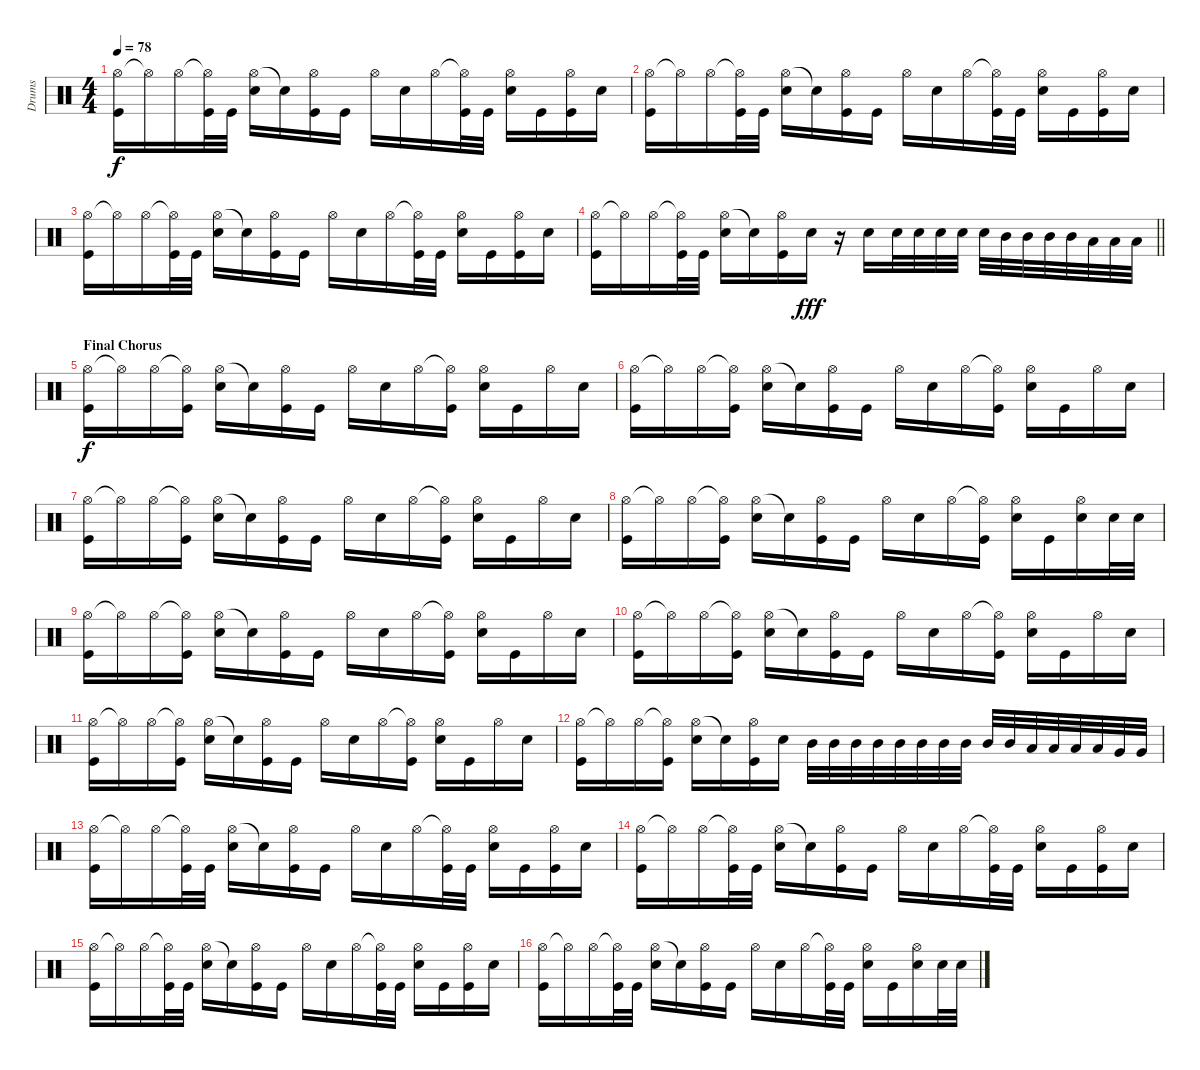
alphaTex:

\track ("Drums" "Drums") {instrument percussion}
\staff {score}
\articulation defaults
\ts (4 4)
\tempo 78
\clef neutral
\ks c
("Hi-Hat (open)" "Kick (hit)").16{dy f} "Hi-Hat (open)"{t}.16 "Hi-Hat (open)".16 ("Hi-Hat (open)"{t} "Kick (hit)").32 "Kick (hit)".32 ("Hi-Hat (open)" "Electric Snare (hit)").16 "Snare (hit)"{t}.16 ("Hi-Hat (open)" "Kick (hit)").16 "Kick (hit)".16 "Hi-Hat (open)".16 "Electric Snare (hit)".16 "Hi-Hat (open)".16 ("Hi-Hat (open)"{t} "Kick (hit)").32 "Kick (hit)".32 ("Hi-Hat (open)" "Electric Snare (hit)").16 "Kick (hit)".16 ("Hi-Hat (open)" "Kick (hit)").16 "Electric Snare (hit)".16 |
("Hi-Hat (open)" "Kick (hit)").16 "Hi-Hat (open)"{t}.16 "Hi-Hat (open)".16 ("Hi-Hat (open)"{t} "Kick (hit)").32 "Kick (hit)".32 ("Hi-Hat (open)" "Electric Snare (hit)").16 "Snare (hit)"{t}.16 ("Hi-Hat (open)" "Kick (hit)").16 "Kick (hit)".16 "Hi-Hat (open)".16 "Electric Snare (hit)".16 "Hi-Hat (open)".16 ("Hi-Hat (open)"{t} "Kick (hit)").32 "Kick (hit)".32 ("Hi-Hat (open)" "Electric Snare (hit)").16 "Kick (hit)".16 ("Hi-Hat (open)" "Kick (hit)").16 "Electric Snare (hit)".16 |
("Hi-Hat (open)" "Kick (hit)").16 "Hi-Hat (open)"{t}.16 "Hi-Hat (open)".16 ("Hi-Hat (open)"{t} "Kick (hit)").32 "Kick (hit)".32 ("Hi-Hat (open)" "Electric Snare (hit)").16 "Snare (hit)"{t}.16 ("Hi-Hat (open)" "Kick (hit)").16 "Kick (hit)".16 "Hi-Hat (open)".16 "Electric Snare (hit)".16 "Hi-Hat (open)".16 ("Hi-Hat (open)"{t} "Kick (hit)").32 "Kick (hit)".32 ("Hi-Hat (open)" "Electric Snare (hit)").16 "Kick (hit)".16 ("Hi-Hat (open)" "Kick (hit)").16 "Electric Snare (hit)".16 |
\barLineRight lightlight
("Hi-Hat (open)" "Kick (hit)").16 "Hi-Hat (open)"{t}.16 "Hi-Hat (open)".16 ("Hi-Hat (open)"{t} "Kick (hit)").32 "Kick (hit)".32 ("Hi-Hat (open)" "Electric Snare (hit)").16 "Snare (hit)"{t}.16 ("Hi-Hat (open)" "Kick (hit)").16 "Electric Snare (hit)".16{dy fff} r.16 "Electric Snare (hit)".16 "Electric Snare (hit)".32 "Electric Snare (hit)".32 "Electric Snare (hit)".32 "Electric Snare (hit)".32 "Electric Snare (hit)".32 "Mid Tom (hit)".32 "Mid Tom (hit)".32 "Mid Tom (hit)".32 "Mid Tom (hit)".32 "Low Tom (hit)".32 "Low Tom (hit)".32 "Low Tom (hit)".32 |
\section ("" "Final Chorus")
("Hi-Hat (open)" "Kick (hit)").16{dy f} "Hi-Hat (open)"{t}.16 "Hi-Hat (open)".16 ("Hi-Hat (open)"{t} "Kick (hit)").16 ("Hi-Hat (open)" "Electric Snare (hit)").16 "Snare (hit)"{t}.16 ("Hi-Hat (open)" "Kick (hit)").16 "Kick (hit)".16 "Hi-Hat (open)".16 "Electric Snare (hit)".16 "Hi-Hat (open)".16 ("Hi-Hat (open)"{t} "Kick (hit)").16 ("Hi-Hat (open)" "Electric Snare (hit)").16 "Kick (hit)".16 "Hi-Hat (open)".16 "Electric Snare (hit)".16 |
("Hi-Hat (open)" "Kick (hit)").16 "Hi-Hat (open)"{t}.16 "Hi-Hat (open)".16 ("Hi-Hat (open)"{t} "Kick (hit)").16 ("Hi-Hat (open)" "Electric Snare (hit)").16 "Snare (hit)"{t}.16 ("Hi-Hat (open)" "Kick (hit)").16 "Kick (hit)".16 "Hi-Hat (open)".16 "Electric Snare (hit)".16 "Hi-Hat (open)".16 ("Hi-Hat (open)"{t} "Kick (hit)").16 ("Hi-Hat (open)" "Electric Snare (hit)").16 "Kick (hit)".16 "Hi-Hat (open)".16 "Electric Snare (hit)".16 |
("Hi-Hat (open)" "Kick (hit)").16 "Hi-Hat (open)"{t}.16 "Hi-Hat (open)".16 ("Hi-Hat (open)"{t} "Kick (hit)").16 ("Hi-Hat (open)" "Electric Snare (hit)").16 "Snare (hit)"{t}.16 ("Hi-Hat (open)" "Kick (hit)").16 "Kick (hit)".16 "Hi-Hat (open)".16 "Electric Snare (hit)".16 "Hi-Hat (open)".16 ("Hi-Hat (open)"{t} "Kick (hit)").16 ("Hi-Hat (open)" "Electric Snare (hit)").16 "Kick (hit)".16 "Hi-Hat (open)".16 "Electric Snare (hit)".16 |
("Hi-Hat (open)" "Kick (hit)").16 "Hi-Hat (open)"{t}.16 "Hi-Hat (open)".16 ("Hi-Hat (open)"{t} "Kick (hit)").16 ("Hi-Hat (open)" "Electric Snare (hit)").16 "Snare (hit)"{t}.16 ("Hi-Hat (open)" "Kick (hit)").16 "Kick (hit)".16 "Hi-Hat (open)".16 "Electric Snare (hit)".16 "Hi-Hat (open)".16 ("Hi-Hat (open)"{t} "Kick (hit)").16 ("Hi-Hat (open)" "Electric Snare (hit)").16 "Kick (hit)".16 ("Hi-Hat (open)" "Electric Snare (hit)").16 "Electric Snare (hit)".32 "Electric Snare (hit)".32 |
("Hi-Hat (open)" "Kick (hit)").16 "Hi-Hat (open)"{t}.16 "Hi-Hat (open)".16 ("Hi-Hat (open)"{t} "Kick (hit)").16 ("Hi-Hat (open)" "Electric Snare (hit)").16 "Snare (hit)"{t}.16 ("Hi-Hat (open)" "Kick (hit)").16 "Kick (hit)".16 "Hi-Hat (open)".16 "Electric Snare (hit)".16 "Hi-Hat (open)".16 ("Hi-Hat (open)"{t} "Kick (hit)").16 ("Hi-Hat (open)" "Electric Snare (hit)").16 "Kick (hit)".16 "Hi-Hat (open)".16 "Electric Snare (hit)".16 |
("Hi-Hat (open)" "Kick (hit)").16 "Hi-Hat (open)"{t}.16 "Hi-Hat (open)".16 ("Hi-Hat (open)"{t} "Kick (hit)").16 ("Hi-Hat (open)" "Electric Snare (hit)").16 "Snare (hit)"{t}.16 ("Hi-Hat (open)" "Kick (hit)").16 "Kick (hit)".16 "Hi-Hat (open)".16 "Electric Snare (hit)".16 "Hi-Hat (open)".16 ("Hi-Hat (open)"{t} "Kick (hit)").16 ("Hi-Hat (open)" "Electric Snare (hit)").16 "Kick (hit)".16 "Hi-Hat (open)".16 "Electric Snare (hit)".16 |
("Hi-Hat (open)" "Kick (hit)").16 "Hi-Hat (open)"{t}.16 "Hi-Hat (open)".16 ("Hi-Hat (open)"{t} "Kick (hit)").16 ("Hi-Hat (open)" "Electric Snare (hit)").16 "Snare (hit)"{t}.16 ("Hi-Hat (open)" "Kick (hit)").16 "Kick (hit)".16 "Hi-Hat (open)".16 "Electric Snare (hit)".16 "Hi-Hat (open)".16 ("Hi-Hat (open)"{t} "Kick (hit)").16 ("Hi-Hat (open)" "Electric Snare (hit)").16 "Kick (hit)".16 "Hi-Hat (open)".16 "Electric Snare (hit)".16 |
("Hi-Hat (open)" "Kick (hit)").16 "Hi-Hat (open)"{t}.16 "Hi-Hat (open)".16 ("Hi-Hat (open)"{t} "Kick (hit)").16 ("Hi-Hat (open)" "Electric Snare (hit)").16 "Snare (hit)"{t}.16 ("Hi-Hat (open)" "Kick (hit)").16 "Electric Snare (hit)".16 "Mid Tom (hit)".32 "Mid Tom (hit)".32 "Mid Tom (hit)".32 "Mid Tom (hit)".32 "Mid Tom (hit)".32 "Mid Tom (hit)".32 "Mid Tom (hit)".32 "Mid Tom (hit)".32 "Mid Tom (hit)".32 "Mid Tom (hit)".32 "Low Tom (hit)".32 "Low Tom (hit)".32 "Low Tom (hit)".32 "Low Tom (hit)".32 "Very Low Tom (hit)".32 "Very Low Tom (hit)".32 |
("Hi-Hat (open)" "Kick (hit)").16 "Hi-Hat (open)"{t}.16 "Hi-Hat (open)".16 ("Hi-Hat (open)"{t} "Kick (hit)").32 "Kick (hit)".32 ("Hi-Hat (open)" "Electric Snare (hit)").16 "Snare (hit)"{t}.16 ("Hi-Hat (open)" "Kick (hit)").16 "Kick (hit)".16 "Hi-Hat (open)".16 "Electric Snare (hit)".16 "Hi-Hat (open)".16 ("Hi-Hat (open)"{t} "Kick (hit)").32 "Kick (hit)".32 ("Hi-Hat (open)" "Electric Snare (hit)").16 "Kick (hit)".16 ("Hi-Hat (open)" "Kick (hit)").16 "Electric Snare (hit)".16 |
("Hi-Hat (open)" "Kick (hit)").16 "Hi-Hat (open)"{t}.16 "Hi-Hat (open)".16 ("Hi-Hat (open)"{t} "Kick (hit)").32 "Kick (hit)".32 ("Hi-Hat (open)" "Electric Snare (hit)").16 "Snare (hit)"{t}.16 ("Hi-Hat (open)" "Kick (hit)").16 "Kick (hit)".16 "Hi-Hat (open)".16 "Electric Snare (hit)".16 "Hi-Hat (open)".16 ("Hi-Hat (open)"{t} "Kick (hit)").32 "Kick (hit)".32 ("Hi-Hat (open)" "Electric Snare (hit)").16 "Kick (hit)".16 ("Hi-Hat (open)" "Kick (hit)").16 "Electric Snare (hit)".16 |
("Hi-Hat (open)" "Kick (hit)").16 "Hi-Hat (open)"{t}.16 "Hi-Hat (open)".16 ("Hi-Hat (open)"{t} "Kick (hit)").32 "Kick (hit)".32 ("Hi-Hat (open)" "Electric Snare (hit)").16 "Snare (hit)"{t}.16 ("Hi-Hat (open)" "Kick (hit)").16 "Kick (hit)".16 "Hi-Hat (open)".16 "Electric Snare (hit)".16 "Hi-Hat (open)".16 ("Hi-Hat (open)"{t} "Kick (hit)").32 "Kick (hit)".32 ("Hi-Hat (open)" "Electric Snare (hit)").16 "Kick (hit)".16 ("Hi-Hat (open)" "Kick (hit)").16 "Electric Snare (hit)".16 |
("Hi-Hat (open)" "Kick (hit)").16 "Hi-Hat (open)"{t}.16 "Hi-Hat (open)".16 ("Hi-Hat (open)"{t} "Kick (hit)").32 "Kick (hit)".32 ("Hi-Hat (open)" "Electric Snare (hit)").16 "Snare (hit)"{t}.16 ("Hi-Hat (open)" "Kick (hit)").16 "Kick (hit)".16 "Hi-Hat (open)".16 "Electric Snare (hit)".16 "Hi-Hat (open)".16 ("Hi-Hat (open)"{t} "Kick (hit)").32 "Kick (hit)".32 ("Hi-Hat (open)" "Electric Snare (hit)").16 "Kick (hit)".16 ("Hi-Hat (open)" "Electric Snare (hit)").16 "Electric Snare (hit)".32 "Electric Snare (hit)".32
